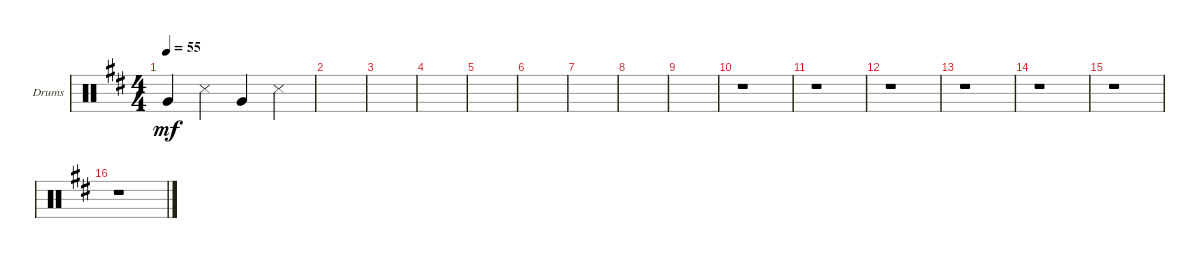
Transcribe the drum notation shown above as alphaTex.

\defaultSystemsLayout 4
\bracketExtendMode groupsimilarinstruments
\firstSystemTrackNameOrientation horizontal
\otherSystemsTrackNameOrientation horizontal
\track ("Drumkit" "Drums") {instrument percussion}
\staff {score}
\articulation defaults
\ts (4 4)
\tempo 55
\clef neutral
\ks d "Very Low Tom (hit)".4{dy mf} "Snare (side stick) 3".4 "Very Low Tom (hit)".4 "Snare (side stick) 3".4
|
|
|
|
|
|
|
|
|
r.1 |
r.1 |
r.1 |
r.1 |
r.1 |
r.1 |
r.1
